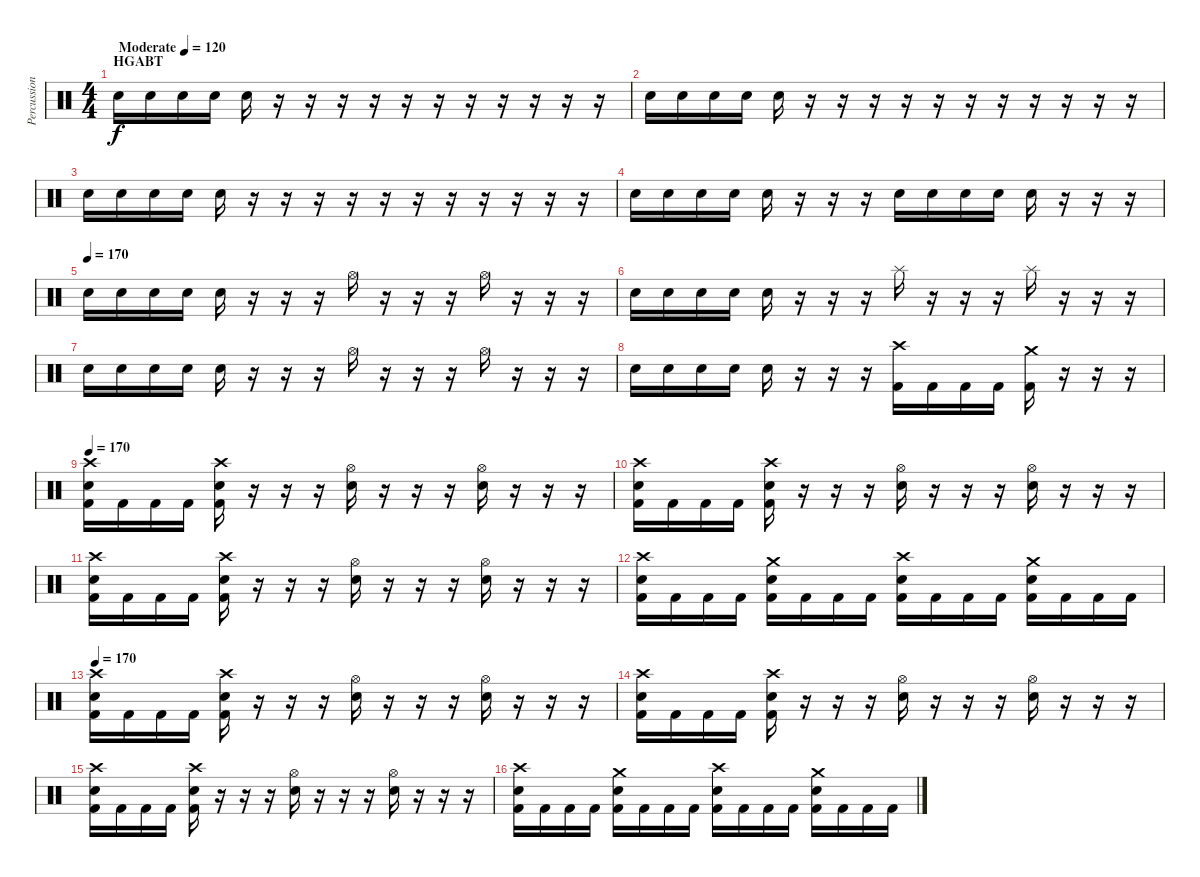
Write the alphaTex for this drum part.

\track ("Percussion" "Percussion") {instrument percussion}
\staff {score}
\articulation defaults
\ts (4 4)
\section ("" "HGABT")
\tempo (120 "Moderate")
\tempo 170
\tempo (120 "Moderate")
\clef neutral
\ks c "Snare (hit) 2".16{dy f} "Snare (hit) 2".16 "Snare (hit) 2".16 "Snare (hit) 2".16 "Snare (hit) 2".16
r.16 r.16 r.16 r.16 r.16 r.16 r.16 r.16 r.16 r.16 r.16 |
"Snare (hit) 2".16 "Snare (hit) 2".16 "Snare (hit) 2".16 "Snare (hit) 2".16 "Snare (hit) 2".16 r.16 r.16 r.16 r.16 r.16 r.16 r.16 r.16 r.16 r.16 r.16 |
"Snare (hit) 2".16 "Snare (hit) 2".16 "Snare (hit) 2".16 "Snare (hit) 2".16 "Snare (hit) 2".16 r.16 r.16 r.16 r.16 r.16 r.16 r.16 r.16 r.16 r.16 r.16 |
"Snare (hit) 2".16 "Snare (hit) 2".16 "Snare (hit) 2".16 "Snare (hit) 2".16 "Snare (hit) 2".16 r.16 r.16 r.16 "Snare (hit) 2".16 "Snare (hit) 2".16 "Snare (hit) 2".16 "Snare (hit) 2".16 "Snare (hit) 2".16 r.16 r.16 r.16 |
\tempo (170)
"Snare (hit) 2".16 "Snare (hit) 2".16 "Snare (hit) 2".16 "Snare (hit) 2".16 "Snare (hit) 2".16 r.16 r.16 r.16 "Hi-Hat (open)".16 r.16 r.16 r.16 "Hi-Hat (open)".16 r.16 r.16 r.16 |
"Snare (hit) 2".16 "Snare (hit) 2".16 "Snare (hit) 2".16 "Snare (hit) 2".16 "Snare (hit) 2".16 r.16 r.16 r.16 "Splash (hit)".16 r.16 r.16 r.16 "Splash (hit)".16 r.16 r.16 r.16 |
"Snare (hit) 2".16 "Snare (hit) 2".16 "Snare (hit) 2".16 "Snare (hit) 2".16 "Snare (hit) 2".16 r.16 r.16 r.16 "Hi-Hat (open)".16 r.16 r.16 r.16 "Hi-Hat (open)".16 r.16 r.16 r.16 |
"Snare (hit) 2".16 "Snare (hit) 2".16 "Snare (hit) 2".16 "Snare (hit) 2".16 "Snare (hit) 2".16 r.16 r.16 r.16 ("Kick (hit) 2" "Crash high (hit)").16 "Kick (hit) 2".16 "Kick (hit) 2".16 "Kick (hit) 2".16 ("Kick (hit) 2" "Crash medium (hit)").16 r.16 r.16 r.16 |
\tempo 170
("Crash high (hit)" "Snare (hit) 2" "Kick (hit) 2").16 "Kick (hit) 2".16 "Kick (hit) 2".16 "Kick (hit) 2".16 ("Crash high (hit)" "Snare (hit) 2" "Kick (hit) 2").16 r.16 r.16 r.16 ("Hi-Hat (open)" "Snare (hit) 2").16 r.16 r.16 r.16 ("Hi-Hat (open)" "Snare (hit) 2").16 r.16 r.16 r.16 |
("Crash high (hit)" "Snare (hit) 2" "Kick (hit) 2").16 "Kick (hit) 2".16 "Kick (hit) 2".16 "Kick (hit) 2".16 ("Crash high (hit)" "Snare (hit) 2" "Kick (hit) 2").16 r.16 r.16 r.16 ("Hi-Hat (open)" "Snare (hit) 2").16 r.16 r.16 r.16 ("Hi-Hat (open)" "Snare (hit) 2").16 r.16 r.16 r.16 |
("Crash high (hit)" "Snare (hit) 2" "Kick (hit) 2").16 "Kick (hit) 2".16 "Kick (hit) 2".16 "Kick (hit) 2".16 ("Crash high (hit)" "Snare (hit) 2" "Kick (hit) 2").16 r.16 r.16 r.16 ("Hi-Hat (open)" "Snare (hit) 2").16 r.16 r.16 r.16 ("Hi-Hat (open)" "Snare (hit) 2").16 r.16 r.16 r.16 |
("Crash high (hit)" "Snare (hit) 2" "Kick (hit) 2").16 "Kick (hit) 2".16 "Kick (hit) 2".16 "Kick (hit) 2".16 ("Crash medium (hit)" "Snare (hit) 2" "Kick (hit) 2").16 "Kick (hit) 2".16 "Kick (hit) 2".16 "Kick (hit) 2".16 ("Crash high (hit)" "Snare (hit) 2" "Kick (hit) 2").16 "Kick (hit) 2".16 "Kick (hit) 2".16 "Kick (hit) 2".16 ("Crash medium (hit)" "Snare (hit) 2" "Kick (hit) 2").16 "Kick (hit) 2".16 "Kick (hit) 2".16 "Kick (hit) 2".16 |
\tempo 170
("Crash high (hit)" "Snare (hit) 2" "Kick (hit) 2").16 "Kick (hit) 2".16 "Kick (hit) 2".16 "Kick (hit) 2".16 ("Crash high (hit)" "Snare (hit) 2" "Kick (hit) 2").16 r.16 r.16 r.16 ("Hi-Hat (open)" "Snare (hit) 2").16 r.16 r.16 r.16 ("Hi-Hat (open)" "Snare (hit) 2").16 r.16 r.16 r.16 |
("Crash high (hit)" "Snare (hit) 2" "Kick (hit) 2").16 "Kick (hit) 2".16 "Kick (hit) 2".16 "Kick (hit) 2".16 ("Crash high (hit)" "Snare (hit) 2" "Kick (hit) 2").16 r.16 r.16 r.16 ("Hi-Hat (open)" "Snare (hit) 2").16 r.16 r.16 r.16 ("Hi-Hat (open)" "Snare (hit) 2").16 r.16 r.16 r.16 |
("Crash high (hit)" "Snare (hit) 2" "Kick (hit) 2").16 "Kick (hit) 2".16 "Kick (hit) 2".16 "Kick (hit) 2".16 ("Crash high (hit)" "Snare (hit) 2" "Kick (hit) 2").16 r.16 r.16 r.16 ("Hi-Hat (open)" "Snare (hit) 2").16 r.16 r.16 r.16 ("Hi-Hat (open)" "Snare (hit) 2").16 r.16 r.16 r.16 |
("Crash high (hit)" "Snare (hit) 2" "Kick (hit) 2").16 "Kick (hit) 2".16 "Kick (hit) 2".16 "Kick (hit) 2".16 ("Crash medium (hit)" "Snare (hit) 2" "Kick (hit) 2").16 "Kick (hit) 2".16 "Kick (hit) 2".16 "Kick (hit) 2".16 ("Crash high (hit)" "Snare (hit) 2" "Kick (hit) 2").16 "Kick (hit) 2".16 "Kick (hit) 2".16 "Kick (hit) 2".16 ("Crash medium (hit)" "Snare (hit) 2" "Kick (hit) 2").16 "Kick (hit) 2".16 "Kick (hit) 2".16 "Kick (hit) 2".16
